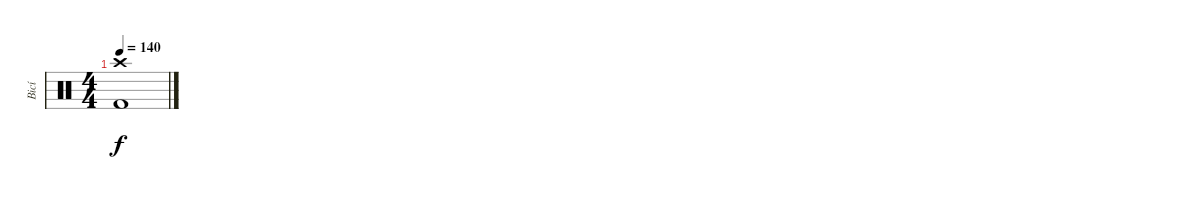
\track ("Bicí" "Bicí") {instrument percussion}
\staff {score}
\articulation defaults
\ts (4 4)
\tempo 140
\clef neutral
\ks c
("Crash high (hit)" "Kick (hit) 2").1{dy f}
